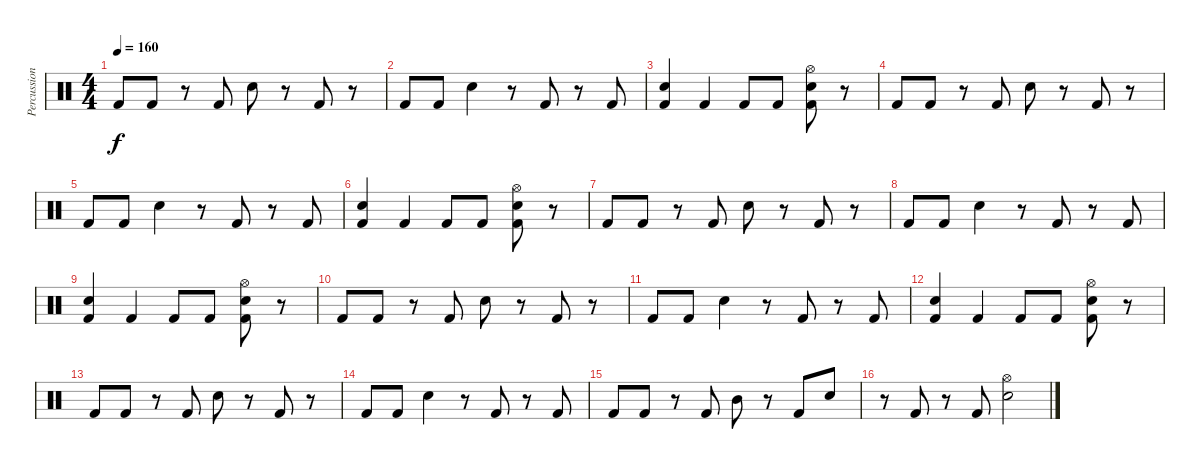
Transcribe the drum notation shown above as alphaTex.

\track ("Percussion" "Percussion") {instrument percussion}
\staff {score}
\articulation defaults
\ts (4 4)
\tempo 160
\clef neutral
\ks c "Kick (hit) 2".8{dy f} "Kick (hit) 2".8
r.8 "Kick (hit) 2".8 "Snare (hit) 2".8 r.8 "Kick (hit) 2".8 r.8 |
"Kick (hit) 2".8 "Kick (hit) 2".8 "Snare (hit) 2".4 r.8 "Kick (hit) 2".8 r.8 "Kick (hit) 2".8 |
("Snare (hit) 2" "Kick (hit) 2").4 "Kick (hit) 2".4 "Kick (hit) 2".8 "Kick (hit) 2".8 ("Hi-Hat (open)" "Snare (hit) 2" "Kick (hit) 2").8 r.8 |
"Kick (hit) 2".8 "Kick (hit) 2".8 r.8 "Kick (hit) 2".8 "Snare (hit) 2".8 r.8 "Kick (hit) 2".8 r.8 |
"Kick (hit) 2".8 "Kick (hit) 2".8 "Snare (hit) 2".4 r.8 "Kick (hit) 2".8 r.8 "Kick (hit) 2".8 |
("Snare (hit) 2" "Kick (hit) 2").4 "Kick (hit) 2".4 "Kick (hit) 2".8 "Kick (hit) 2".8 ("Hi-Hat (open)" "Snare (hit) 2" "Kick (hit) 2").8 r.8 |
"Kick (hit) 2".8 "Kick (hit) 2".8 r.8 "Kick (hit) 2".8 "Snare (hit) 2".8 r.8 "Kick (hit) 2".8 r.8 |
"Kick (hit) 2".8 "Kick (hit) 2".8 "Snare (hit) 2".4 r.8 "Kick (hit) 2".8 r.8 "Kick (hit) 2".8 |
("Snare (hit) 2" "Kick (hit) 2").4 "Kick (hit) 2".4 "Kick (hit) 2".8 "Kick (hit) 2".8 ("Hi-Hat (open)" "Snare (hit) 2" "Kick (hit) 2").8 r.8 |
"Kick (hit) 2".8 "Kick (hit) 2".8 r.8 "Kick (hit) 2".8 "Snare (hit) 2".8 r.8 "Kick (hit) 2".8 r.8 |
"Kick (hit) 2".8 "Kick (hit) 2".8 "Snare (hit) 2".4 r.8 "Kick (hit) 2".8 r.8 "Kick (hit) 2".8 |
("Snare (hit) 2" "Kick (hit) 2").4 "Kick (hit) 2".4 "Kick (hit) 2".8 "Kick (hit) 2".8 ("Hi-Hat (open)" "Snare (hit) 2" "Kick (hit) 2").8 r.8 |
"Kick (hit) 2".8 "Kick (hit) 2".8 r.8 "Kick (hit) 2".8 "Snare (hit) 2".8 r.8 "Kick (hit) 2".8 r.8 |
"Kick (hit) 2".8 "Kick (hit) 2".8 "Snare (hit) 2".4 r.8 "Kick (hit) 2".8 r.8 "Kick (hit) 2".8 |
"Kick (hit) 2".8 "Kick (hit) 2".8 r.8 "Kick (hit) 2".8 "Mid Tom (hit)".8 r.8 "Kick (hit) 2".8 "Snare (hit) 2".8 |
r.8 "Kick (hit) 2".8 r.8 "Kick (hit) 2".8 ("Hi-Hat (open)" "Snare (hit) 2").2
